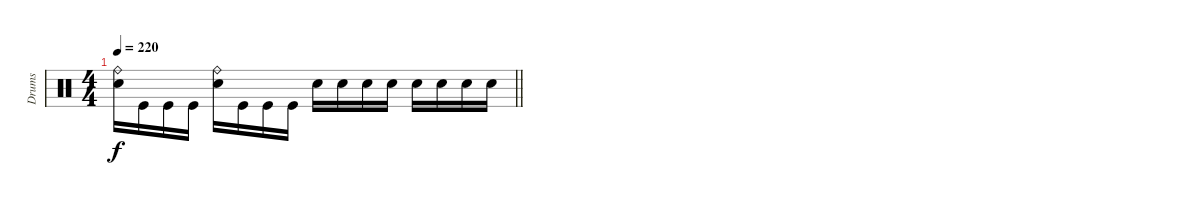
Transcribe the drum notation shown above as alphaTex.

\track ("Drums" "Drums") {instrument percussion}
\staff
\articulation defaults
\ts (4 4)
\tempo 220
\clef neutral
\barLineRight lightlight
\ks c
("Ride (bell)" "Electric Snare (hit)").16{dy f} "Kick (hit)".16 "Kick (hit)".16 "Kick (hit)".16 ("Ride (bell)" "Electric Snare (hit)").16 "Kick (hit)".16 "Kick (hit)".16 "Kick (hit)".16 "Electric Snare (hit)".16 "Electric Snare (hit)".16 "Electric Snare (hit)".16 "Electric Snare (hit)".16 "Electric Snare (hit)".16 "Electric Snare (hit)".16 "Electric Snare (hit)".16 "Electric Snare (hit)".16
